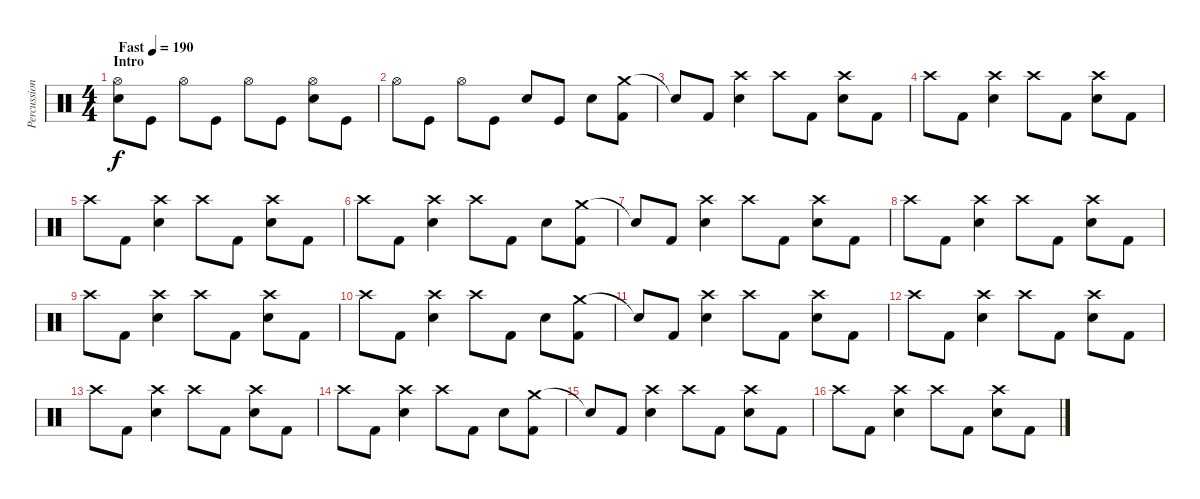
\track ("Percussion" "Percussion") {instrument percussion}
\staff {score}
\articulation defaults
\ts (4 4)
\section ("" "Intro")
\tempo (190 "Fast")
\clef neutral
\ks c
("Hi-Hat (open)" "Snare (hit) 2").8{dy f volume 9} "Kick (hit)".8 "Hi-Hat (open)".8 "Kick (hit)".8 "Hi-Hat (open)".8 "Kick (hit)".8 ("Hi-Hat (open)" "Snare (hit) 2").8 "Kick (hit)".8 |
"Hi-Hat (open)".8 "Kick (hit)".8 "Hi-Hat (open)".8 "Kick (hit)".8 "Snare (hit) 2".8 "Kick (hit)".8 "Snare (hit) 2".8 ("Crash medium (hit)" "Kick (hit) 2").8{volume 13} |
"Snare (hit)"{t}.8 "Kick (hit) 2".8 ("Crash high (hit)" "Electric Snare (hit)").4 "Crash high (hit)".8 "Kick (hit) 2".8 ("Crash high (hit)" "Electric Snare (hit)").8 "Kick (hit) 2".8 |
"Crash high (hit)".8 "Kick (hit) 2".8 ("Crash high (hit)" "Electric Snare (hit)").4 "Crash high (hit)".8 "Kick (hit) 2".8 ("Crash high (hit)" "Electric Snare (hit)").8 "Kick (hit) 2".8 |
"Crash high (hit)".8 "Kick (hit) 2".8 ("Crash high (hit)" "Electric Snare (hit)").4 "Crash high (hit)".8 "Kick (hit) 2".8 ("Crash high (hit)" "Electric Snare (hit)").8 "Kick (hit) 2".8 |
"Crash high (hit)".8 "Kick (hit) 2".8 ("Crash high (hit)" "Electric Snare (hit)").4 "Crash high (hit)".8 "Kick (hit) 2".8 "Electric Snare (hit)".8 ("Crash medium (hit)" "Kick (hit) 2").8 |
"Snare (hit)"{t}.8 "Kick (hit) 2".8 ("Crash high (hit)" "Electric Snare (hit)").4 "Crash high (hit)".8 "Kick (hit) 2".8 ("Crash high (hit)" "Electric Snare (hit)").8 "Kick (hit) 2".8 |
"Crash high (hit)".8 "Kick (hit) 2".8 ("Crash high (hit)" "Electric Snare (hit)").4 "Crash high (hit)".8 "Kick (hit) 2".8 ("Crash high (hit)" "Electric Snare (hit)").8 "Kick (hit) 2".8 |
"Crash high (hit)".8 "Kick (hit) 2".8 ("Crash high (hit)" "Electric Snare (hit)").4 "Crash high (hit)".8 "Kick (hit) 2".8 ("Crash high (hit)" "Electric Snare (hit)").8 "Kick (hit) 2".8 |
"Crash high (hit)".8 "Kick (hit) 2".8 ("Crash high (hit)" "Electric Snare (hit)").4 "Crash high (hit)".8 "Kick (hit) 2".8 "Electric Snare (hit)".8 ("Crash medium (hit)" "Kick (hit) 2").8 |
"Snare (hit)"{t}.8 "Kick (hit) 2".8 ("Crash high (hit)" "Electric Snare (hit)").4 "Crash high (hit)".8 "Kick (hit) 2".8 ("Crash high (hit)" "Electric Snare (hit)").8 "Kick (hit) 2".8 |
"Crash high (hit)".8 "Kick (hit) 2".8 ("Crash high (hit)" "Electric Snare (hit)").4 "Crash high (hit)".8 "Kick (hit) 2".8 ("Crash high (hit)" "Electric Snare (hit)").8 "Kick (hit) 2".8 |
"Crash high (hit)".8 "Kick (hit) 2".8 ("Crash high (hit)" "Electric Snare (hit)").4 "Crash high (hit)".8 "Kick (hit) 2".8 ("Crash high (hit)" "Electric Snare (hit)").8 "Kick (hit) 2".8 |
"Crash high (hit)".8 "Kick (hit) 2".8 ("Crash high (hit)" "Electric Snare (hit)").4 "Crash high (hit)".8 "Kick (hit) 2".8 "Electric Snare (hit)".8 ("Crash medium (hit)" "Kick (hit) 2").8 |
"Snare (hit)"{t}.8 "Kick (hit) 2".8 ("Crash high (hit)" "Electric Snare (hit)").4 "Crash high (hit)".8 "Kick (hit) 2".8 ("Crash high (hit)" "Electric Snare (hit)").8 "Kick (hit) 2".8 |
"Crash high (hit)".8 "Kick (hit) 2".8 ("Crash high (hit)" "Electric Snare (hit)").4 "Crash high (hit)".8 "Kick (hit) 2".8 ("Crash high (hit)" "Electric Snare (hit)").8 "Kick (hit) 2".8
